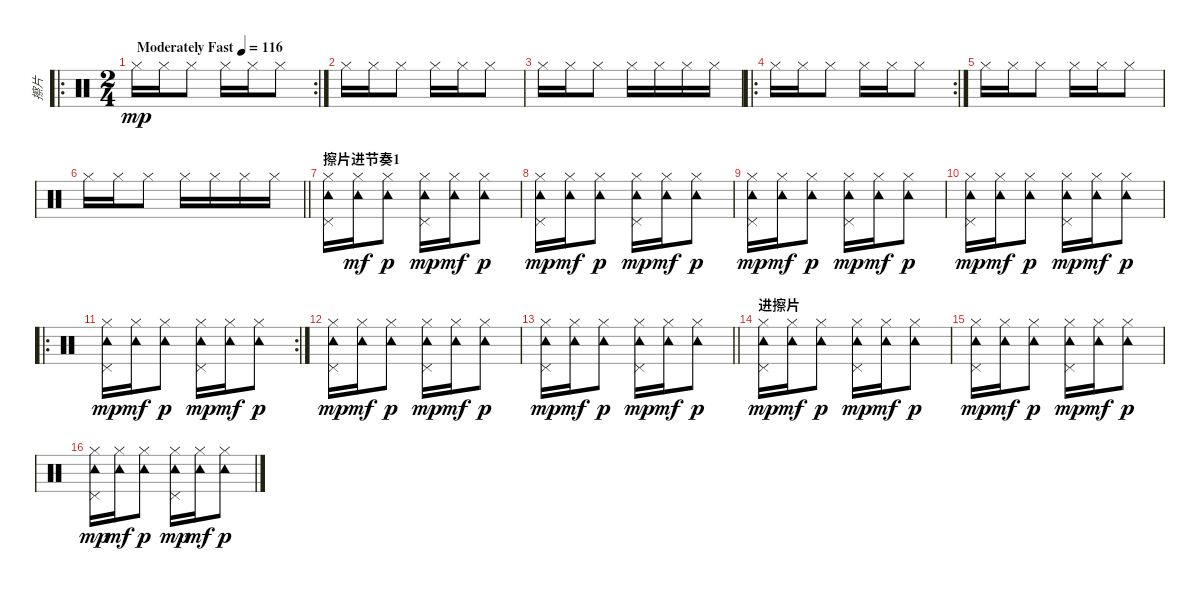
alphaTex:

\track ("擦片" "擦片") {instrument percussion}
\staff {score}
\articulation defaults
\ro
\rc 2
\ts (2 4)
\tempo (116 "Moderately Fast")
\clef neutral
\ks c "Hi-Hat (closed)".16{dy mp} "Hi-Hat (closed)".16 "Hi-Hat (closed)".8 "Hi-Hat (closed)".16 "Hi-Hat (closed)".16 "Hi-Hat (closed)".8
|
"Hi-Hat (closed)".16 "Hi-Hat (closed)".16 "Hi-Hat (closed)".8 "Hi-Hat (closed)".16 "Hi-Hat (closed)".16 "Hi-Hat (closed)".8 |
"Hi-Hat (closed)".16 "Hi-Hat (closed)".16 "Hi-Hat (closed)".8 "Hi-Hat (closed)".16 "Hi-Hat (closed)".16 "Hi-Hat (closed)".16 "Hi-Hat (closed)".16 |
\ro
\rc 2 "Hi-Hat (closed)".16 "Hi-Hat (closed)".16 "Hi-Hat (closed)".8 "Hi-Hat (closed)".16 "Hi-Hat (closed)".16 "Hi-Hat (closed)".8
|
"Hi-Hat (closed)".16 "Hi-Hat (closed)".16 "Hi-Hat (closed)".8 "Hi-Hat (closed)".16 "Hi-Hat (closed)".16 "Hi-Hat (closed)".8 |
\barLineRight lightlight "Hi-Hat (closed)".16 "Hi-Hat (closed)".16 "Hi-Hat (closed)".8 "Hi-Hat (closed)".16 "Hi-Hat (closed)".16 "Hi-Hat (closed)".16 "Hi-Hat (closed)".16
|
\section ("" "擦片进节奏1")
("Hi-Hat (closed)" "Tambourine (hit)" "Pedal Hi-Hat (hit)").16 ("Hi-Hat (closed)" "Tambourine (hit)").16{dy mf} ("Hi-Hat (closed)" "Tambourine (hit)").8{dy p} ("Hi-Hat (closed)" "Tambourine (hit)" "Pedal Hi-Hat (hit)").16{dy mp} ("Hi-Hat (closed)" "Tambourine (hit)").16{dy mf} ("Hi-Hat (closed)" "Tambourine (hit)").8{dy p} |
("Hi-Hat (closed)" "Tambourine (hit)" "Pedal Hi-Hat (hit)").16{dy mp} ("Hi-Hat (closed)" "Tambourine (hit)").16{dy mf} ("Hi-Hat (closed)" "Tambourine (hit)").8{dy p} ("Hi-Hat (closed)" "Tambourine (hit)" "Pedal Hi-Hat (hit)").16{dy mp} ("Hi-Hat (closed)" "Tambourine (hit)").16{dy mf} ("Hi-Hat (closed)" "Tambourine (hit)").8{dy p} |
("Hi-Hat (closed)" "Tambourine (hit)" "Pedal Hi-Hat (hit)").16{dy mp} ("Hi-Hat (closed)" "Tambourine (hit)").16{dy mf} ("Hi-Hat (closed)" "Tambourine (hit)").8{dy p} ("Hi-Hat (closed)" "Tambourine (hit)" "Pedal Hi-Hat (hit)").16{dy mp} ("Hi-Hat (closed)" "Tambourine (hit)").16{dy mf} ("Hi-Hat (closed)" "Tambourine (hit)").8{dy p} |
("Hi-Hat (closed)" "Tambourine (hit)" "Pedal Hi-Hat (hit)").16{dy mp} ("Hi-Hat (closed)" "Tambourine (hit)").16{dy mf} ("Hi-Hat (closed)" "Tambourine (hit)").8{dy p} ("Hi-Hat (closed)" "Tambourine (hit)" "Pedal Hi-Hat (hit)").16{dy mp} ("Hi-Hat (closed)" "Tambourine (hit)").16{dy mf} ("Hi-Hat (closed)" "Tambourine (hit)").8{dy p} |
\ro
\rc 2
("Hi-Hat (closed)" "Tambourine (hit)" "Pedal Hi-Hat (hit)").16{dy mp} ("Hi-Hat (closed)" "Tambourine (hit)").16{dy mf} ("Hi-Hat (closed)" "Tambourine (hit)").8{dy p} ("Hi-Hat (closed)" "Tambourine (hit)" "Pedal Hi-Hat (hit)").16{dy mp} ("Hi-Hat (closed)" "Tambourine (hit)").16{dy mf} ("Hi-Hat (closed)" "Tambourine (hit)").8{dy p} |
("Hi-Hat (closed)" "Tambourine (hit)" "Pedal Hi-Hat (hit)").16{dy mp} ("Hi-Hat (closed)" "Tambourine (hit)").16{dy mf} ("Hi-Hat (closed)" "Tambourine (hit)").8{dy p} ("Hi-Hat (closed)" "Tambourine (hit)" "Pedal Hi-Hat (hit)").16{dy mp} ("Hi-Hat (closed)" "Tambourine (hit)").16{dy mf} ("Hi-Hat (closed)" "Tambourine (hit)").8{dy p} |
\barLineRight lightlight
("Hi-Hat (closed)" "Tambourine (hit)" "Pedal Hi-Hat (hit)").16{dy mp} ("Hi-Hat (closed)" "Tambourine (hit)").16{dy mf} ("Hi-Hat (closed)" "Tambourine (hit)").8{dy p} ("Hi-Hat (closed)" "Tambourine (hit)" "Pedal Hi-Hat (hit)").16{dy mp} ("Hi-Hat (closed)" "Tambourine (hit)").16{dy mf} ("Hi-Hat (closed)" "Tambourine (hit)").8{dy p} |
\section ("" "进擦片")
("Hi-Hat (closed)" "Tambourine (hit)" "Pedal Hi-Hat (hit)").16{dy mp} ("Hi-Hat (closed)" "Tambourine (hit)").16{dy mf} ("Hi-Hat (closed)" "Tambourine (hit)").8{dy p} ("Hi-Hat (closed)" "Tambourine (hit)" "Pedal Hi-Hat (hit)").16{dy mp} ("Hi-Hat (closed)" "Tambourine (hit)").16{dy mf} ("Hi-Hat (closed)" "Tambourine (hit)").8{dy p} |
("Hi-Hat (closed)" "Tambourine (hit)" "Pedal Hi-Hat (hit)").16{dy mp} ("Hi-Hat (closed)" "Tambourine (hit)").16{dy mf} ("Hi-Hat (closed)" "Tambourine (hit)").8{dy p} ("Hi-Hat (closed)" "Tambourine (hit)" "Pedal Hi-Hat (hit)").16{dy mp} ("Hi-Hat (closed)" "Tambourine (hit)").16{dy mf} ("Hi-Hat (closed)" "Tambourine (hit)").8{dy p} |
("Hi-Hat (closed)" "Tambourine (hit)" "Pedal Hi-Hat (hit)").16{dy mp} ("Hi-Hat (closed)" "Tambourine (hit)").16{dy mf} ("Hi-Hat (closed)" "Tambourine (hit)").8{dy p} ("Hi-Hat (closed)" "Tambourine (hit)" "Pedal Hi-Hat (hit)").16{dy mp} ("Hi-Hat (closed)" "Tambourine (hit)").16{dy mf} ("Hi-Hat (closed)" "Tambourine (hit)").8{dy p}
